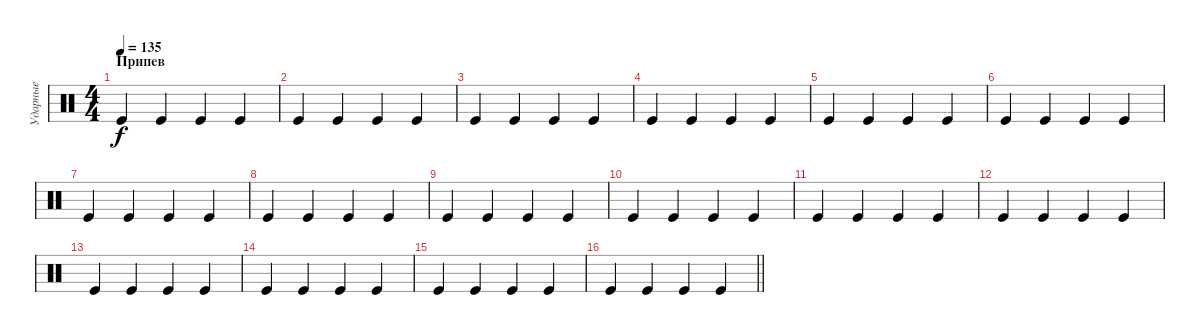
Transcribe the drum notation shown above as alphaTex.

\track ("Ударные" "Ударные") {instrument percussion}
\staff {score}
\articulation defaults
\ts (4 4)
\section ("" "Припев")
\tempo 135
\clef neutral
\ks c "Kick (hit)".4{dy f} "Kick (hit)".4 "Kick (hit)".4 "Kick (hit)".4
|
"Kick (hit)".4 "Kick (hit)".4 "Kick (hit)".4 "Kick (hit)".4 |
"Kick (hit)".4 "Kick (hit)".4 "Kick (hit)".4 "Kick (hit)".4 |
"Kick (hit)".4 "Kick (hit)".4 "Kick (hit)".4 "Kick (hit)".4 |
"Kick (hit)".4 "Kick (hit)".4 "Kick (hit)".4 "Kick (hit)".4 |
"Kick (hit)".4 "Kick (hit)".4 "Kick (hit)".4 "Kick (hit)".4 |
"Kick (hit)".4 "Kick (hit)".4 "Kick (hit)".4 "Kick (hit)".4 |
"Kick (hit)".4 "Kick (hit)".4 "Kick (hit)".4 "Kick (hit)".4 |
"Kick (hit)".4 "Kick (hit)".4 "Kick (hit)".4 "Kick (hit)".4 |
"Kick (hit)".4 "Kick (hit)".4 "Kick (hit)".4 "Kick (hit)".4 |
"Kick (hit)".4 "Kick (hit)".4 "Kick (hit)".4 "Kick (hit)".4 |
"Kick (hit)".4 "Kick (hit)".4 "Kick (hit)".4 "Kick (hit)".4 |
"Kick (hit)".4 "Kick (hit)".4 "Kick (hit)".4 "Kick (hit)".4 |
"Kick (hit)".4 "Kick (hit)".4 "Kick (hit)".4 "Kick (hit)".4 |
"Kick (hit)".4 "Kick (hit)".4 "Kick (hit)".4 "Kick (hit)".4 |
\barLineRight lightlight "Kick (hit)".4 "Kick (hit)".4 "Kick (hit)".4 "Kick (hit)".4
